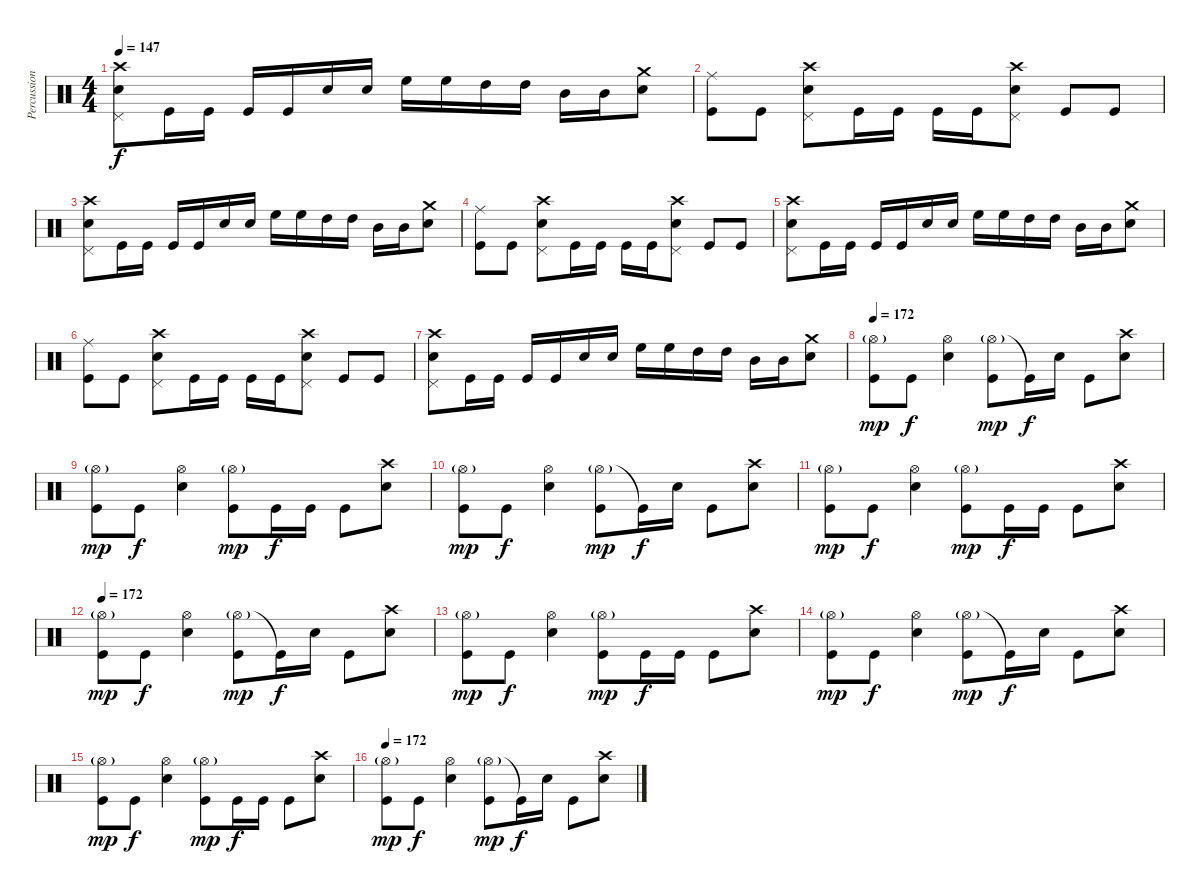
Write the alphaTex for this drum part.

\track ("Percussion" "Percussion") {instrument percussion}
\staff {score}
\articulation defaults
\ts (4 4)
\tempo 147
\clef neutral
\ks c
("Crash high (hit)" "Pedal Hi-Hat (hit)" "Snare (hit) 2").8{dy f} "Kick (hit)".16 "Kick (hit)".16 "Kick (hit)".16 "Kick (hit)".16 "Snare (hit) 2".16 "Snare (hit) 2".16 "High Floor Tom (hit)".16 "High Floor Tom (hit)".16 "High Tom (hit)".16 "High Tom (hit)".16 "Mid Tom (hit)".16 "Mid Tom (hit)".16 ("Crash medium (hit)" "Snare (hit) 2").8 |
("Ride (middle)" "Kick (hit)").8 "Kick (hit)".8 ("Crash high (hit)" "Pedal Hi-Hat (hit)" "Snare (hit) 2").8 "Kick (hit)".16 "Kick (hit)".16 "Kick (hit)".16 "Kick (hit)".16 ("Crash high (hit)" "Pedal Hi-Hat (hit)" "Snare (hit) 2").8 "Kick (hit)".8 "Kick (hit)".8 |
("Crash high (hit)" "Pedal Hi-Hat (hit)" "Snare (hit) 2").8 "Kick (hit)".16 "Kick (hit)".16 "Kick (hit)".16 "Kick (hit)".16 "Snare (hit) 2".16 "Snare (hit) 2".16 "High Floor Tom (hit)".16 "High Floor Tom (hit)".16 "High Tom (hit)".16 "High Tom (hit)".16 "Mid Tom (hit)".16 "Mid Tom (hit)".16 ("Crash medium (hit)" "Snare (hit) 2").8 |
("Ride (middle)" "Kick (hit)").8 "Kick (hit)".8 ("Crash high (hit)" "Pedal Hi-Hat (hit)" "Snare (hit) 2").8 "Kick (hit)".16 "Kick (hit)".16 "Kick (hit)".16 "Kick (hit)".16 ("Crash high (hit)" "Pedal Hi-Hat (hit)" "Snare (hit) 2").8 "Kick (hit)".8 "Kick (hit)".8 |
("Crash high (hit)" "Pedal Hi-Hat (hit)" "Snare (hit) 2").8 "Kick (hit)".16 "Kick (hit)".16 "Kick (hit)".16 "Kick (hit)".16 "Snare (hit) 2".16 "Snare (hit) 2".16 "High Floor Tom (hit)".16 "High Floor Tom (hit)".16 "High Tom (hit)".16 "High Tom (hit)".16 "Mid Tom (hit)".16 "Mid Tom (hit)".16 ("Crash medium (hit)" "Snare (hit) 2").8 |
("Ride (middle)" "Kick (hit)").8 "Kick (hit)".8 ("Crash high (hit)" "Pedal Hi-Hat (hit)" "Snare (hit) 2").8 "Kick (hit)".16 "Kick (hit)".16 "Kick (hit)".16 "Kick (hit)".16 ("Crash high (hit)" "Pedal Hi-Hat (hit)" "Snare (hit) 2").8 "Kick (hit)".8 "Kick (hit)".8 |
("Crash high (hit)" "Pedal Hi-Hat (hit)" "Snare (hit) 2").8 "Kick (hit)".16 "Kick (hit)".16 "Kick (hit)".16 "Kick (hit)".16 "Snare (hit) 2".16 "Snare (hit) 2".16 "High Floor Tom (hit)".16 "High Floor Tom (hit)".16 "High Tom (hit)".16 "High Tom (hit)".16 "Mid Tom (hit)".16 "Mid Tom (hit)".16 ("Crash medium (hit)" "Snare (hit) 2").8 |
\tempo 172
("Hi-Hat (open)"{g} "Kick (hit)").8{dy mp} "Kick (hit)".8{dy f} ("Hi-Hat (open)" "Snare (hit) 2").4 ("Hi-Hat (open)"{g} "Kick (hit)").8{dy mp} "Kick (hit)"{t}.16{dy f} "Snare (hit) 2".16 "Kick (hit)".8 ("Crash high (hit)" "Snare (hit) 2").8 |
("Hi-Hat (open)"{g} "Kick (hit)").8{dy mp} "Kick (hit)".8{dy f} ("Hi-Hat (open)" "Snare (hit) 2").4 ("Hi-Hat (open)"{g} "Kick (hit)").8{dy mp} "Kick (hit)".16{dy f} "Kick (hit)".16 "Kick (hit)".8 ("Crash high (hit)" "Snare (hit) 2").8 |
("Hi-Hat (open)"{g} "Kick (hit)").8{dy mp} "Kick (hit)".8{dy f} ("Hi-Hat (open)" "Snare (hit) 2").4 ("Hi-Hat (open)"{g} "Kick (hit)").8{dy mp} "Kick (hit)"{t}.16{dy f} "Snare (hit) 2".16 "Kick (hit)".8 ("Crash high (hit)" "Snare (hit) 2").8 |
("Hi-Hat (open)"{g} "Kick (hit)").8{dy mp} "Kick (hit)".8{dy f} ("Hi-Hat (open)" "Snare (hit) 2").4 ("Hi-Hat (open)"{g} "Kick (hit)").8{dy mp} "Kick (hit)".16{dy f} "Kick (hit)".16 "Kick (hit)".8 ("Crash high (hit)" "Snare (hit) 2").8 |
\tempo 172
("Hi-Hat (open)"{g} "Kick (hit)").8{dy mp} "Kick (hit)".8{dy f} ("Hi-Hat (open)" "Snare (hit) 2").4 ("Hi-Hat (open)"{g} "Kick (hit)").8{dy mp} "Kick (hit)"{t}.16{dy f} "Snare (hit) 2".16 "Kick (hit)".8 ("Crash high (hit)" "Snare (hit) 2").8 |
("Hi-Hat (open)"{g} "Kick (hit)").8{dy mp} "Kick (hit)".8{dy f} ("Hi-Hat (open)" "Snare (hit) 2").4 ("Hi-Hat (open)"{g} "Kick (hit)").8{dy mp} "Kick (hit)".16{dy f} "Kick (hit)".16 "Kick (hit)".8 ("Crash high (hit)" "Snare (hit) 2").8 |
("Hi-Hat (open)"{g} "Kick (hit)").8{dy mp} "Kick (hit)".8{dy f} ("Hi-Hat (open)" "Snare (hit) 2").4 ("Hi-Hat (open)"{g} "Kick (hit)").8{dy mp} "Kick (hit)"{t}.16{dy f} "Snare (hit) 2".16 "Kick (hit)".8 ("Crash high (hit)" "Snare (hit) 2").8 |
("Hi-Hat (open)"{g} "Kick (hit)").8{dy mp} "Kick (hit)".8{dy f} ("Hi-Hat (open)" "Snare (hit) 2").4 ("Hi-Hat (open)"{g} "Kick (hit)").8{dy mp} "Kick (hit)".16{dy f} "Kick (hit)".16 "Kick (hit)".8 ("Crash high (hit)" "Snare (hit) 2").8 |
\tempo 172
("Hi-Hat (open)"{g} "Kick (hit)").8{dy mp} "Kick (hit)".8{dy f} ("Hi-Hat (open)" "Snare (hit) 2").4 ("Hi-Hat (open)"{g} "Kick (hit)").8{dy mp} "Kick (hit)"{t}.16{dy f} "Snare (hit) 2".16 "Kick (hit)".8 ("Crash high (hit)" "Snare (hit) 2").8
